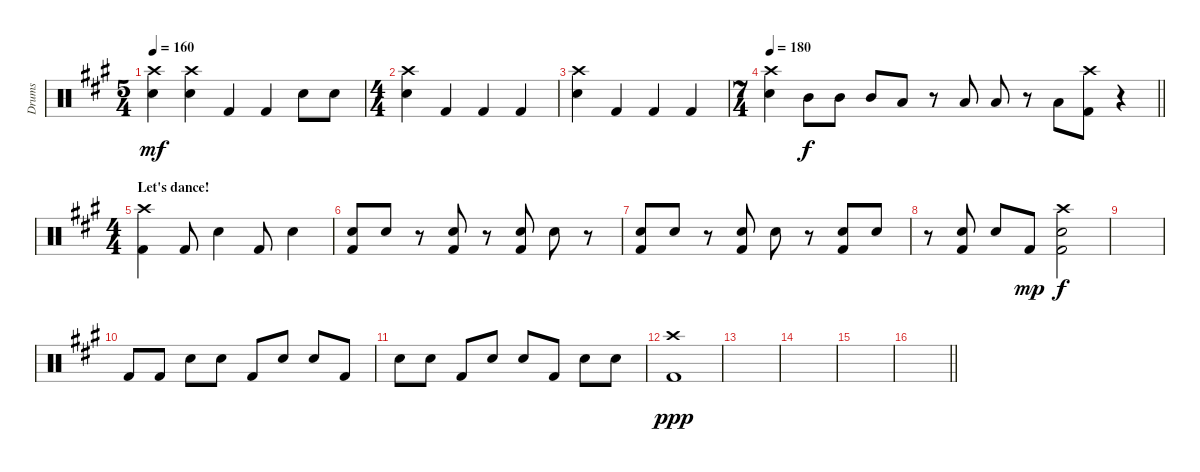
\track ("Drums" "Drums") {instrument percussion}
\staff {score}
\articulation defaults
\ts (5 4)
\tempo 160
\clef neutral
\ks a
("Crash high (hit)" "Snare (hit) 2").4{dy mf} ("Crash high (hit)" "Snare (hit) 2").4 "Kick (hit) 2".4 "Kick (hit) 2".4 "Snare (hit) 2".8 "Snare (hit) 2".8 |
\ts (4 4)
("Crash high (hit)" "Snare (hit) 2").4 "Kick (hit) 2".4 "Kick (hit) 2".4 "Kick (hit) 2".4 |
("Crash high (hit)" "Snare (hit) 2").4 "Kick (hit) 2".4 "Kick (hit) 2".4 "Kick (hit) 2".4 |
\ts (7 4)
\tempo 180
\barLineRight lightlight
("Crash high (hit)" "Snare (hit) 2").4 "Mid Tom (hit)".8{dy f} "Mid Tom (hit)".8 "Mid Tom (hit)".8 "Low Tom (hit)".8 r.8 "Low Tom (hit)".8 "Low Tom (hit)".8 r.8 "Low Tom (hit)".8 ("Crash high (hit)" "Kick (hit) 2").8 r.4 |
\ts (4 4)
\section ("" "Let's dance!")
("Crash high (hit)" "Kick (hit) 2").4 "Kick (hit) 2".8 "Snare (hit) 2".4 "Kick (hit) 2".8 "Snare (hit) 2".4 |
("Snare (hit) 2" "Kick (hit) 2").8 "Snare (hit) 2".8 r.8 ("Snare (hit) 2" "Kick (hit) 2").8 r.8 ("Snare (hit) 2" "Kick (hit) 2").8 "Snare (hit) 2".8 r.8 |
("Snare (hit) 2" "Kick (hit) 2").8 "Snare (hit) 2".8 r.8 ("Snare (hit) 2" "Kick (hit) 2").8 "Snare (hit) 2".8 r.8 ("Snare (hit) 2" "Kick (hit) 2").8 "Snare (hit) 2".8 |
r.8 ("Snare (hit) 2" "Kick (hit) 2").8 "Snare (hit) 2".8 "Kick (hit) 2".8{dy mp} ("Crash high (hit)" "Snare (hit) 2" "Kick (hit) 2").2{dy f} |
|
"Kick (hit) 2".8 "Kick (hit) 2".8 "Snare (hit) 2".8 "Snare (hit) 2".8 "Kick (hit) 2".8 "Snare (hit) 2".8 "Snare (hit) 2".8 "Kick (hit) 2".8 |
"Snare (hit) 2".8 "Snare (hit) 2".8 "Kick (hit) 2".8 "Snare (hit) 2".8 "Snare (hit) 2".8 "Kick (hit) 2".8 "Snare (hit) 2".8 "Snare (hit) 2".8 |
("Crash high (hit)" "Kick (hit) 2").1{dy ppp} |
|
|
|
\barLineRight lightlight
